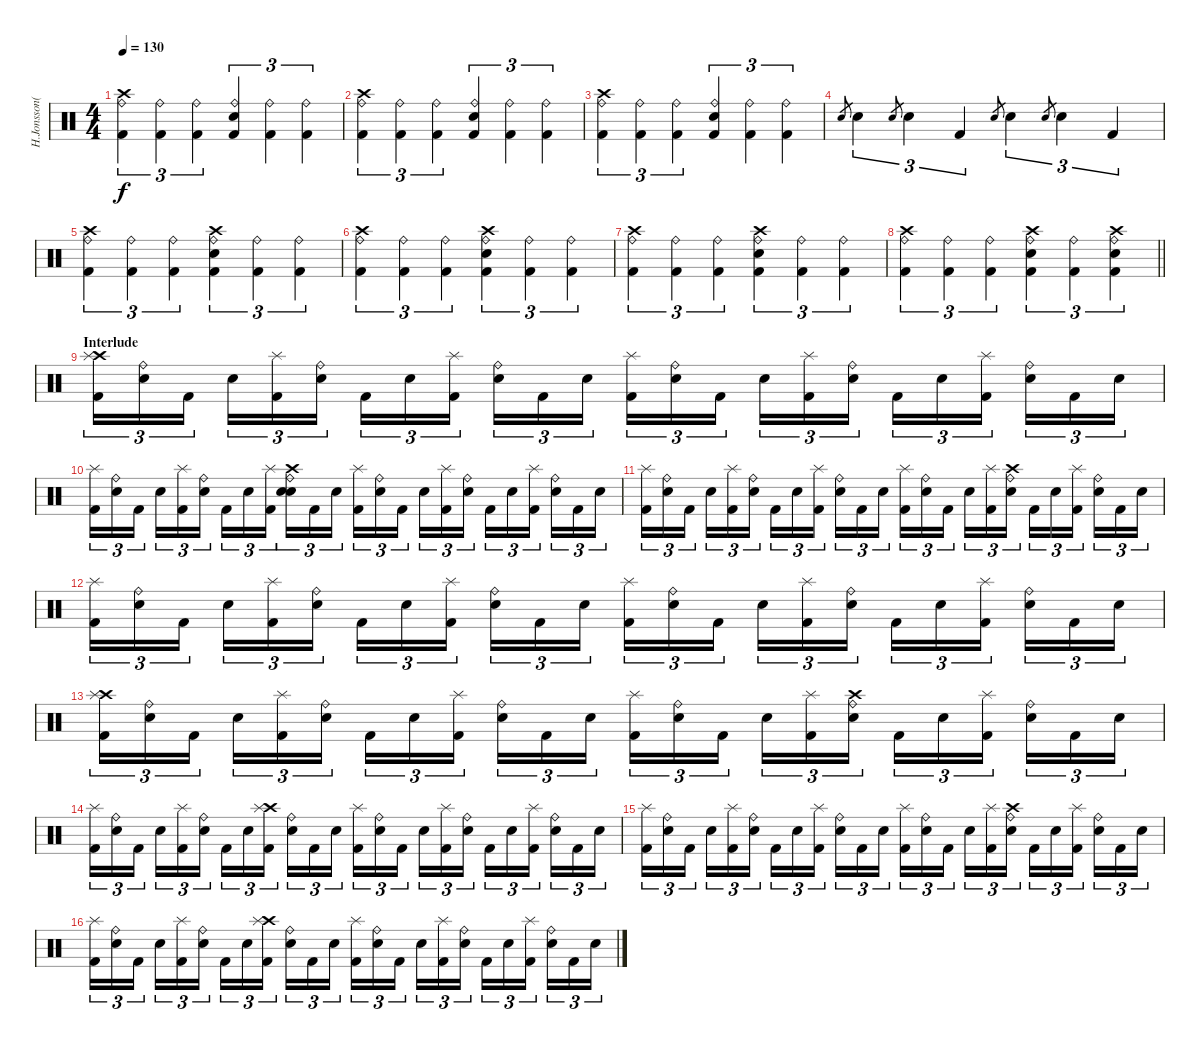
\track ("H.Jonsson(Drums)" "H.Jonsson(") {instrument percussion}
\staff {score}
\articulation defaults
\ts (4 4)
\tempo 130
\clef neutral
\ks c
("Crash high (hit)" "Kick (hit) 2" "Ride (bell)").4{tu (3 2) dy f} ("Kick (hit) 2" "Ride (bell)").4{tu (3 2)} ("Kick (hit) 2" "Ride (bell)").4{tu (3 2)} ("Kick (hit) 2" "Snare (hit) 2" "Ride (bell)").4{tu (3 2)} ("Kick (hit) 2" "Ride (bell)").4{tu (3 2)} ("Kick (hit) 2" "Ride (bell)").4{tu (3 2)} |
("Crash high (hit)" "Kick (hit) 2" "Ride (bell)").4{tu (3 2)} ("Kick (hit) 2" "Ride (bell)").4{tu (3 2)} ("Kick (hit) 2" "Ride (bell)").4{tu (3 2)} ("Kick (hit) 2" "Snare (hit) 2" "Ride (bell)").4{tu (3 2)} ("Kick (hit) 2" "Ride (bell)").4{tu (3 2)} ("Kick (hit) 2" "Ride (bell)").4{tu (3 2)} |
("Crash high (hit)" "Kick (hit) 2" "Ride (bell)").4{tu (3 2)} ("Kick (hit) 2" "Ride (bell)").4{tu (3 2)} ("Kick (hit) 2" "Ride (bell)").4{tu (3 2)} ("Kick (hit) 2" "Snare (hit) 2" "Ride (bell)").4{tu (3 2)} ("Kick (hit) 2" "Ride (bell)").4{tu (3 2)} ("Kick (hit) 2" "Ride (bell)").4{tu (3 2)} |
"Electric Snare (hit)".8{gr} "Electric Snare (hit)".4{tu (3 2)} "Electric Snare (hit)".8{gr} "Electric Snare (hit)".4{tu (3 2)} "Kick (hit) 2".4{tu (3 2)} "Electric Snare (hit)".8{gr} "Electric Snare (hit)".4{tu (3 2)} "Electric Snare (hit)".8{gr} "Electric Snare (hit)".4{tu (3 2)} "Kick (hit) 2".4{tu (3 2)} |
("Crash high (hit)" "Kick (hit) 2" "Ride (bell)").4{tu (3 2)} ("Kick (hit) 2" "Ride (bell)").4{tu (3 2)} ("Kick (hit) 2" "Ride (bell)").4{tu (3 2)} ("Crash high (hit)" "Kick (hit) 2" "Snare (hit) 2" "Ride (bell)").4{tu (3 2)} ("Kick (hit) 2" "Ride (bell)").4{tu (3 2)} ("Kick (hit) 2" "Ride (bell)").4{tu (3 2)} |
("Crash high (hit)" "Kick (hit) 2" "Ride (bell)").4{tu (3 2)} ("Kick (hit) 2" "Ride (bell)").4{tu (3 2)} ("Kick (hit) 2" "Ride (bell)").4{tu (3 2)} ("Crash high (hit)" "Kick (hit) 2" "Snare (hit) 2" "Ride (bell)").4{tu (3 2)} ("Kick (hit) 2" "Ride (bell)").4{tu (3 2)} ("Kick (hit) 2" "Ride (bell)").4{tu (3 2)} |
("Crash high (hit)" "Kick (hit) 2" "Ride (bell)").4{tu (3 2)} ("Kick (hit) 2" "Ride (bell)").4{tu (3 2)} ("Kick (hit) 2" "Ride (bell)").4{tu (3 2)} ("Crash high (hit)" "Kick (hit) 2" "Snare (hit) 2" "Ride (bell)").4{tu (3 2)} ("Kick (hit) 2" "Ride (bell)").4{tu (3 2)} ("Kick (hit) 2" "Ride (bell)").4{tu (3 2)} |
\barLineRight lightlight
("Crash high (hit)" "Kick (hit) 2" "Ride (bell)").4{tu (3 2)} ("Kick (hit) 2" "Ride (bell)").4{tu (3 2)} ("Kick (hit) 2" "Ride (bell)").4{tu (3 2)} ("Crash high (hit)" "Kick (hit) 2" "Snare (hit) 2" "Ride (bell)").4{tu (3 2)} ("Kick (hit) 2" "Ride (bell)").4{tu (3 2)} ("Crash high (hit)" "Kick (hit) 2" "Ride (bell)" "Snare (hit) 2").4{tu (3 2)} |
\section ("" "Interlude")
("Crash high (hit)" "Splash (hit)" "Kick (hit) 2").16{tu (3 2)} ("Ride (bell)" "Electric Snare (hit)").16{tu (3 2)} "Kick (hit) 2".16{tu (3 2) beam splitsecondary} "Electric Snare (hit)".16{tu (3 2)} ("Splash (hit)" "Kick (hit) 2").16{tu (3 2)} ("Ride (bell)" "Electric Snare (hit)").16{tu (3 2)} "Kick (hit) 2".16{tu (3 2)} "Electric Snare (hit)".16{tu (3 2)} ("Splash (hit)" "Kick (hit) 2").16{tu (3 2) beam splitsecondary} ("Ride (bell)" "Electric Snare (hit)").16{tu (3 2)} "Kick (hit) 2".16{tu (3 2)} "Electric Snare (hit)".16{tu (3 2)} ("Splash (hit)" "Kick (hit) 2").16{tu (3 2)} ("Ride (bell)" "Electric Snare (hit)").16{tu (3 2)} "Kick (hit) 2".16{tu (3 2) beam splitsecondary} "Electric Snare (hit)".16{tu (3 2)} ("Splash (hit)" "Kick (hit) 2").16{tu (3 2)} ("Ride (bell)" "Electric Snare (hit)").16{tu (3 2)} "Kick (hit) 2".16{tu (3 2)} "Electric Snare (hit)".16{tu (3 2)} ("Splash (hit)" "Kick (hit) 2").16{tu (3 2) beam splitsecondary} ("Ride (bell)" "Electric Snare (hit)").16{tu (3 2)} "Kick (hit) 2".16{tu (3 2)} "Electric Snare (hit)".16{tu (3 2)} |
("Splash (hit)" "Kick (hit) 2").16{tu (3 2)} ("Ride (bell)" "Electric Snare (hit)").16{tu (3 2)} "Kick (hit) 2".16{tu (3 2) beam splitsecondary} "Electric Snare (hit)".16{tu (3 2)} ("Splash (hit)" "Kick (hit) 2").16{tu (3 2)} ("Ride (bell)" "Electric Snare (hit)").16{tu (3 2)} "Kick (hit) 2".16{tu (3 2)} "Electric Snare (hit)".16{tu (3 2)} ("Splash (hit)" "Kick (hit) 2").16{tu (3 2) beam splitsecondary} ("Crash high (hit)" "Snare (hit) 2" "Ride (bell)" "Electric Snare (hit)").16{tu (3 2)} "Kick (hit) 2".16{tu (3 2)} "Electric Snare (hit)".16{tu (3 2)} ("Splash (hit)" "Kick (hit) 2").16{tu (3 2)} ("Ride (bell)" "Electric Snare (hit)").16{tu (3 2)} "Kick (hit) 2".16{tu (3 2) beam splitsecondary} "Electric Snare (hit)".16{tu (3 2)} ("Splash (hit)" "Kick (hit) 2").16{tu (3 2)} ("Ride (bell)" "Electric Snare (hit)").16{tu (3 2)} "Kick (hit) 2".16{tu (3 2)} "Electric Snare (hit)".16{tu (3 2)} ("Splash (hit)" "Kick (hit) 2").16{tu (3 2) beam splitsecondary} ("Ride (bell)" "Electric Snare (hit)").16{tu (3 2)} "Kick (hit) 2".16{tu (3 2)} "Electric Snare (hit)".16{tu (3 2)} |
("Splash (hit)" "Kick (hit) 2").16{tu (3 2)} ("Ride (bell)" "Electric Snare (hit)").16{tu (3 2)} "Kick (hit) 2".16{tu (3 2) beam splitsecondary} "Electric Snare (hit)".16{tu (3 2)} ("Splash (hit)" "Kick (hit) 2").16{tu (3 2)} ("Ride (bell)" "Electric Snare (hit)").16{tu (3 2)} "Kick (hit) 2".16{tu (3 2)} "Electric Snare (hit)".16{tu (3 2)} ("Splash (hit)" "Kick (hit) 2").16{tu (3 2) beam splitsecondary} ("Ride (bell)" "Electric Snare (hit)").16{tu (3 2)} "Kick (hit) 2".16{tu (3 2)} "Electric Snare (hit)".16{tu (3 2)} ("Splash (hit)" "Kick (hit) 2").16{tu (3 2)} ("Ride (bell)" "Electric Snare (hit)").16{tu (3 2)} "Kick (hit) 2".16{tu (3 2) beam splitsecondary} "Electric Snare (hit)".16{tu (3 2)} ("Splash (hit)" "Kick (hit) 2").16{tu (3 2)} ("Crash high (hit)" "Ride (bell)" "Electric Snare (hit)").16{tu (3 2)} "Kick (hit) 2".16{tu (3 2)} "Electric Snare (hit)".16{tu (3 2)} ("Splash (hit)" "Kick (hit) 2").16{tu (3 2) beam splitsecondary} ("Ride (bell)" "Electric Snare (hit)").16{tu (3 2)} "Kick (hit) 2".16{tu (3 2)} "Electric Snare (hit)".16{tu (3 2)} |
("Splash (hit)" "Kick (hit) 2").16{tu (3 2)} ("Ride (bell)" "Electric Snare (hit)").16{tu (3 2)} "Kick (hit) 2".16{tu (3 2) beam splitsecondary} "Electric Snare (hit)".16{tu (3 2)} ("Splash (hit)" "Kick (hit) 2").16{tu (3 2)} ("Ride (bell)" "Electric Snare (hit)").16{tu (3 2)} "Kick (hit) 2".16{tu (3 2)} "Electric Snare (hit)".16{tu (3 2)} ("Splash (hit)" "Kick (hit) 2").16{tu (3 2) beam splitsecondary} ("Ride (bell)" "Electric Snare (hit)").16{tu (3 2)} "Kick (hit) 2".16{tu (3 2)} "Electric Snare (hit)".16{tu (3 2)} ("Splash (hit)" "Kick (hit) 2").16{tu (3 2)} ("Ride (bell)" "Electric Snare (hit)").16{tu (3 2)} "Kick (hit) 2".16{tu (3 2) beam splitsecondary} "Electric Snare (hit)".16{tu (3 2)} ("Splash (hit)" "Kick (hit) 2").16{tu (3 2)} ("Ride (bell)" "Electric Snare (hit)").16{tu (3 2)} "Kick (hit) 2".16{tu (3 2)} "Electric Snare (hit)".16{tu (3 2)} ("Splash (hit)" "Kick (hit) 2").16{tu (3 2) beam splitsecondary} ("Ride (bell)" "Electric Snare (hit)").16{tu (3 2)} "Kick (hit) 2".16{tu (3 2)} "Electric Snare (hit)".16{tu (3 2)} |
("Crash high (hit)" "Splash (hit)" "Kick (hit) 2").16{tu (3 2)} ("Ride (bell)" "Electric Snare (hit)").16{tu (3 2)} "Kick (hit) 2".16{tu (3 2) beam splitsecondary} "Electric Snare (hit)".16{tu (3 2)} ("Splash (hit)" "Kick (hit) 2").16{tu (3 2)} ("Ride (bell)" "Electric Snare (hit)").16{tu (3 2)} "Kick (hit) 2".16{tu (3 2)} "Electric Snare (hit)".16{tu (3 2)} ("Splash (hit)" "Kick (hit) 2").16{tu (3 2) beam splitsecondary} ("Ride (bell)" "Electric Snare (hit)").16{tu (3 2)} "Kick (hit) 2".16{tu (3 2)} "Electric Snare (hit)".16{tu (3 2)} ("Splash (hit)" "Kick (hit) 2").16{tu (3 2)} ("Ride (bell)" "Electric Snare (hit)").16{tu (3 2)} "Kick (hit) 2".16{tu (3 2) beam splitsecondary} "Electric Snare (hit)".16{tu (3 2)} ("Splash (hit)" "Kick (hit) 2").16{tu (3 2)} ("Crash high (hit)" "Ride (bell)" "Electric Snare (hit)").16{tu (3 2)} "Kick (hit) 2".16{tu (3 2)} "Electric Snare (hit)".16{tu (3 2)} ("Splash (hit)" "Kick (hit) 2").16{tu (3 2) beam splitsecondary} ("Ride (bell)" "Electric Snare (hit)").16{tu (3 2)} "Kick (hit) 2".16{tu (3 2)} "Electric Snare (hit)".16{tu (3 2)} |
("Splash (hit)" "Kick (hit) 2").16{tu (3 2)} ("Ride (bell)" "Electric Snare (hit)").16{tu (3 2)} "Kick (hit) 2".16{tu (3 2) beam splitsecondary} "Electric Snare (hit)".16{tu (3 2)} ("Splash (hit)" "Kick (hit) 2").16{tu (3 2)} ("Ride (bell)" "Electric Snare (hit)").16{tu (3 2)} "Kick (hit) 2".16{tu (3 2)} "Electric Snare (hit)".16{tu (3 2)} ("Crash high (hit)" "Splash (hit)" "Kick (hit) 2").16{tu (3 2) beam splitsecondary} ("Ride (bell)" "Electric Snare (hit)").16{tu (3 2)} "Kick (hit) 2".16{tu (3 2)} "Electric Snare (hit)".16{tu (3 2)} ("Splash (hit)" "Kick (hit) 2").16{tu (3 2)} ("Ride (bell)" "Electric Snare (hit)").16{tu (3 2)} "Kick (hit) 2".16{tu (3 2) beam splitsecondary} "Electric Snare (hit)".16{tu (3 2)} ("Splash (hit)" "Kick (hit) 2").16{tu (3 2)} ("Ride (bell)" "Electric Snare (hit)").16{tu (3 2)} "Kick (hit) 2".16{tu (3 2)} "Electric Snare (hit)".16{tu (3 2)} ("Splash (hit)" "Kick (hit) 2").16{tu (3 2) beam splitsecondary} ("Ride (bell)" "Electric Snare (hit)").16{tu (3 2)} "Kick (hit) 2".16{tu (3 2)} "Electric Snare (hit)".16{tu (3 2)} |
("Splash (hit)" "Kick (hit) 2").16{tu (3 2)} ("Ride (bell)" "Electric Snare (hit)").16{tu (3 2)} "Kick (hit) 2".16{tu (3 2) beam splitsecondary} "Electric Snare (hit)".16{tu (3 2)} ("Splash (hit)" "Kick (hit) 2").16{tu (3 2)} ("Ride (bell)" "Electric Snare (hit)").16{tu (3 2)} "Kick (hit) 2".16{tu (3 2)} "Electric Snare (hit)".16{tu (3 2)} ("Splash (hit)" "Kick (hit) 2").16{tu (3 2) beam splitsecondary} ("Ride (bell)" "Electric Snare (hit)").16{tu (3 2)} "Kick (hit) 2".16{tu (3 2)} "Electric Snare (hit)".16{tu (3 2)} ("Splash (hit)" "Kick (hit) 2").16{tu (3 2)} ("Ride (bell)" "Electric Snare (hit)").16{tu (3 2)} "Kick (hit) 2".16{tu (3 2) beam splitsecondary} "Electric Snare (hit)".16{tu (3 2)} ("Splash (hit)" "Kick (hit) 2").16{tu (3 2)} ("Crash high (hit)" "Ride (bell)" "Electric Snare (hit)").16{tu (3 2)} "Kick (hit) 2".16{tu (3 2)} "Electric Snare (hit)".16{tu (3 2)} ("Splash (hit)" "Kick (hit) 2").16{tu (3 2) beam splitsecondary} ("Ride (bell)" "Electric Snare (hit)").16{tu (3 2)} "Kick (hit) 2".16{tu (3 2)} "Electric Snare (hit)".16{tu (3 2)} |
("Splash (hit)" "Kick (hit) 2").16{tu (3 2)} ("Ride (bell)" "Electric Snare (hit)").16{tu (3 2)} "Kick (hit) 2".16{tu (3 2) beam splitsecondary} "Electric Snare (hit)".16{tu (3 2)} ("Splash (hit)" "Kick (hit) 2").16{tu (3 2)} ("Ride (bell)" "Electric Snare (hit)").16{tu (3 2)} "Kick (hit) 2".16{tu (3 2)} "Electric Snare (hit)".16{tu (3 2)} ("Crash high (hit)" "Splash (hit)" "Kick (hit) 2").16{tu (3 2) beam splitsecondary} ("Ride (bell)" "Electric Snare (hit)").16{tu (3 2)} "Kick (hit) 2".16{tu (3 2)} "Electric Snare (hit)".16{tu (3 2)} ("Splash (hit)" "Kick (hit) 2").16{tu (3 2)} ("Ride (bell)" "Electric Snare (hit)").16{tu (3 2)} "Kick (hit) 2".16{tu (3 2) beam splitsecondary} "Electric Snare (hit)".16{tu (3 2)} ("Splash (hit)" "Kick (hit) 2").16{tu (3 2)} ("Ride (bell)" "Electric Snare (hit)").16{tu (3 2)} "Kick (hit) 2".16{tu (3 2)} "Electric Snare (hit)".16{tu (3 2)} ("Splash (hit)" "Kick (hit) 2").16{tu (3 2) beam splitsecondary} ("Ride (bell)" "Electric Snare (hit)").16{tu (3 2)} "Kick (hit) 2".16{tu (3 2)} "Electric Snare (hit)".16{tu (3 2)}
